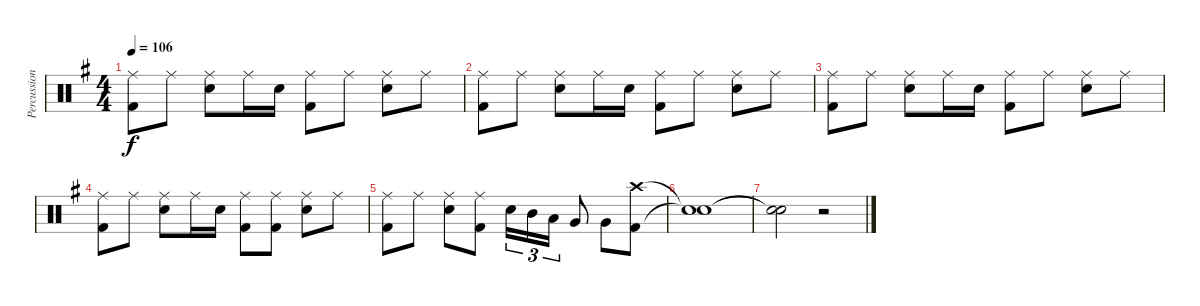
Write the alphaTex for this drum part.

\track ("Percussion" "Percussion") {instrument percussion}
\staff {score}
\articulation defaults
\ts (4 4)
\tempo 106
\clef neutral
\ks g
("Ride (middle)" "Kick (hit) 2").8{dy f} "Ride (middle)".8 ("Ride (middle)" "Snare (hit) 2").8 "Ride (middle)".16 "Snare (hit) 2".16 ("Ride (middle)" "Kick (hit) 2").8 "Ride (middle)".8 ("Ride (middle)" "Snare (hit) 2").8 "Ride (middle)".8 |
("Ride (middle)" "Kick (hit) 2").8 "Ride (middle)".8 ("Ride (middle)" "Snare (hit) 2").8 "Ride (middle)".16 "Snare (hit) 2".16 ("Ride (middle)" "Kick (hit) 2").8 "Ride (middle)".8 ("Ride (middle)" "Snare (hit) 2").8 "Ride (middle)".8 |
("Ride (middle)" "Kick (hit) 2").8 "Ride (middle)".8 ("Ride (middle)" "Snare (hit) 2").8 "Ride (middle)".16 "Snare (hit) 2".16 ("Ride (middle)" "Kick (hit) 2").8 "Ride (middle)".8 ("Ride (middle)" "Snare (hit) 2").8 "Ride (middle)".8 |
("Ride (middle)" "Kick (hit) 2").8 "Ride (middle)".8 ("Ride (middle)" "Snare (hit) 2").8 "Ride (middle)".16 "Snare (hit) 2".16 ("Ride (middle)" "Kick (hit) 2").8 ("Ride (middle)" "Kick (hit) 2").8 ("Ride (middle)" "Snare (hit) 2").8 "Ride (middle)".8 |
("Ride (middle)" "Kick (hit) 2").8 "Ride (middle)".8 ("Ride (middle)" "Snare (hit) 2").8 ("Ride (middle)" "Kick (hit) 2").8 "Snare (hit) 2".16{tu (3 2)} "Mid Tom (hit)".16{tu (3 2)} "Low Tom (hit)".16{tu (3 2)} "Very Low Tom (hit)".8 "Very Low Tom (hit)".8 ("Crash high (hit)" "Kick (hit) 2").8 |
("Snare (hit)"{t} "Snare (hit)"{t}).1 |
("Snare (hit)"{t} "Snare (hit)"{t}).2 r.2
